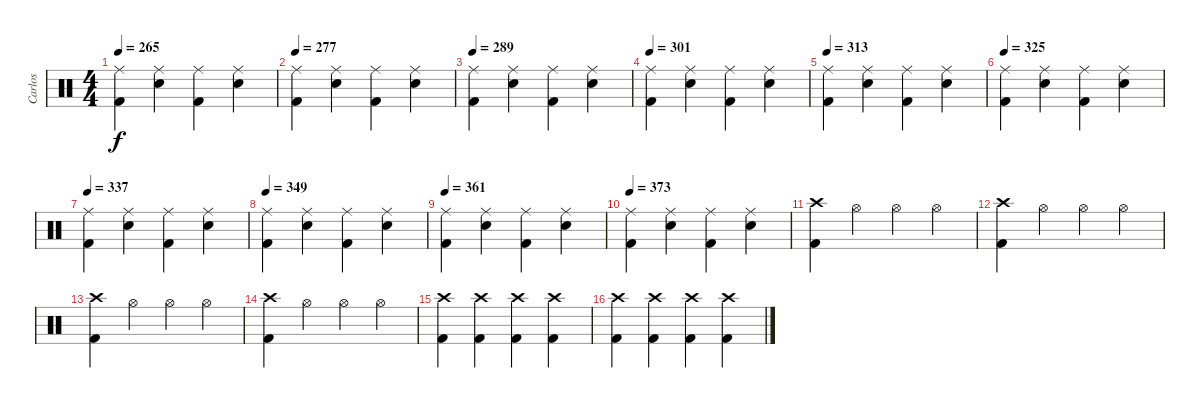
\track ("Carlos" "Carlos") {instrument percussion}
\staff {score}
\articulation defaults
\ts (4 4)
\tempo 265
\clef neutral
\ks c
("Ride (middle)" "Kick (hit) 2").4{dy f} ("Ride (middle)" "Snare (hit) 2").4 ("Ride (middle)" "Kick (hit) 2").4 ("Ride (middle)" "Snare (hit) 2").4 |
\tempo 277
("Ride (middle)" "Kick (hit) 2").4 ("Ride (middle)" "Snare (hit) 2").4 ("Ride (middle)" "Kick (hit) 2").4 ("Ride (middle)" "Snare (hit) 2").4 |
\tempo 289
("Ride (middle)" "Kick (hit) 2").4 ("Ride (middle)" "Snare (hit) 2").4 ("Ride (middle)" "Kick (hit) 2").4 ("Ride (middle)" "Snare (hit) 2").4 |
\tempo 301
("Ride (middle)" "Kick (hit) 2").4 ("Ride (middle)" "Snare (hit) 2").4 ("Ride (middle)" "Kick (hit) 2").4 ("Ride (middle)" "Snare (hit) 2").4 |
\tempo 313
("Ride (middle)" "Kick (hit) 2").4 ("Ride (middle)" "Snare (hit) 2").4 ("Ride (middle)" "Kick (hit) 2").4 ("Ride (middle)" "Snare (hit) 2").4 |
\tempo 325
("Ride (middle)" "Kick (hit) 2").4 ("Ride (middle)" "Snare (hit) 2").4 ("Ride (middle)" "Kick (hit) 2").4 ("Ride (middle)" "Snare (hit) 2").4 |
\tempo 337
("Ride (middle)" "Kick (hit) 2").4 ("Ride (middle)" "Snare (hit) 2").4 ("Ride (middle)" "Kick (hit) 2").4 ("Ride (middle)" "Snare (hit) 2").4 |
\tempo 349
("Ride (middle)" "Kick (hit) 2").4 ("Ride (middle)" "Snare (hit) 2").4 ("Ride (middle)" "Kick (hit) 2").4 ("Ride (middle)" "Snare (hit) 2").4 |
\tempo 361
("Ride (middle)" "Kick (hit) 2").4 ("Ride (middle)" "Snare (hit) 2").4 ("Ride (middle)" "Kick (hit) 2").4 ("Ride (middle)" "Snare (hit) 2").4 |
\tempo 373
("Ride (middle)" "Kick (hit) 2").4 ("Ride (middle)" "Snare (hit) 2").4 ("Ride (middle)" "Kick (hit) 2").4 ("Ride (middle)" "Snare (hit) 2").4 |
("Crash high (hit)" "Kick (hit) 2").4 "Hi-Hat (open)".4 "Hi-Hat (open)".4 "Hi-Hat (open)".4 |
("Crash high (hit)" "Kick (hit) 2").4 "Hi-Hat (open)".4 "Hi-Hat (open)".4 "Hi-Hat (open)".4 |
("Crash high (hit)" "Kick (hit) 2").4 "Hi-Hat (open)".4 "Hi-Hat (open)".4 "Hi-Hat (open)".4 |
("Crash high (hit)" "Kick (hit) 2").4 "Hi-Hat (open)".4 "Hi-Hat (open)".4 "Hi-Hat (open)".4 |
("Crash high (hit)" "Kick (hit) 2").4 ("Crash high (hit)" "Kick (hit) 2").4 ("Crash high (hit)" "Kick (hit) 2").4 ("Crash high (hit)" "Kick (hit) 2").4 |
("Crash high (hit)" "Kick (hit) 2").4 ("Crash high (hit)" "Kick (hit) 2").4 ("Crash high (hit)" "Kick (hit) 2").4 ("Crash high (hit)" "Kick (hit) 2").4
